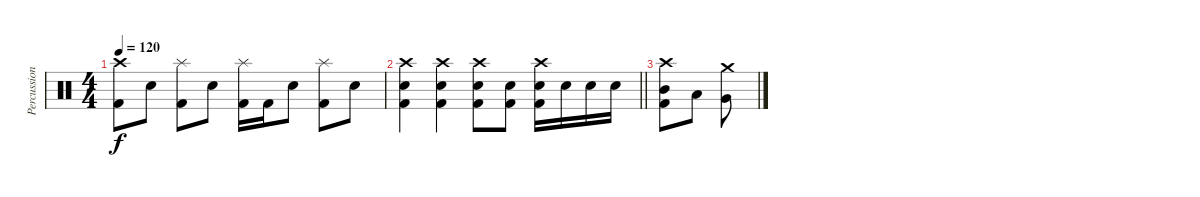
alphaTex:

\track ("Percussion" "Percussion") {instrument percussion}
\staff {score}
\articulation defaults
\ts (4 4)
\tempo 120
\clef neutral
\ks c
("Crash high (hit)" "Kick (hit) 2").8{dy f} "Electric Snare (hit)".8 ("Splash (hit)" "Kick (hit) 2").8 "Electric Snare (hit)".8 ("Splash (hit)" "Kick (hit) 2").16 "Kick (hit) 2".16 "Electric Snare (hit)".8 ("Splash (hit)" "Kick (hit) 2").8 "Electric Snare (hit)".8 |
\barLineRight lightlight
("Crash high (hit)" "Electric Snare (hit)" "Kick (hit) 2").4 ("Crash high (hit)" "Electric Snare (hit)" "Kick (hit) 2").4 ("Crash high (hit)" "Electric Snare (hit)" "Kick (hit) 2").8 ("Electric Snare (hit)" "Kick (hit) 2").8 ("Crash high (hit)" "Electric Snare (hit)" "Kick (hit) 2").16 "Electric Snare (hit)".16 "Electric Snare (hit)".16 "Electric Snare (hit)".16 |
("Crash high (hit)" "Mid Tom (hit)" "Kick (hit) 2").8 "Low Tom (hit)".8 ("Crash medium (hit)" "Very Low Tom (hit)").8
